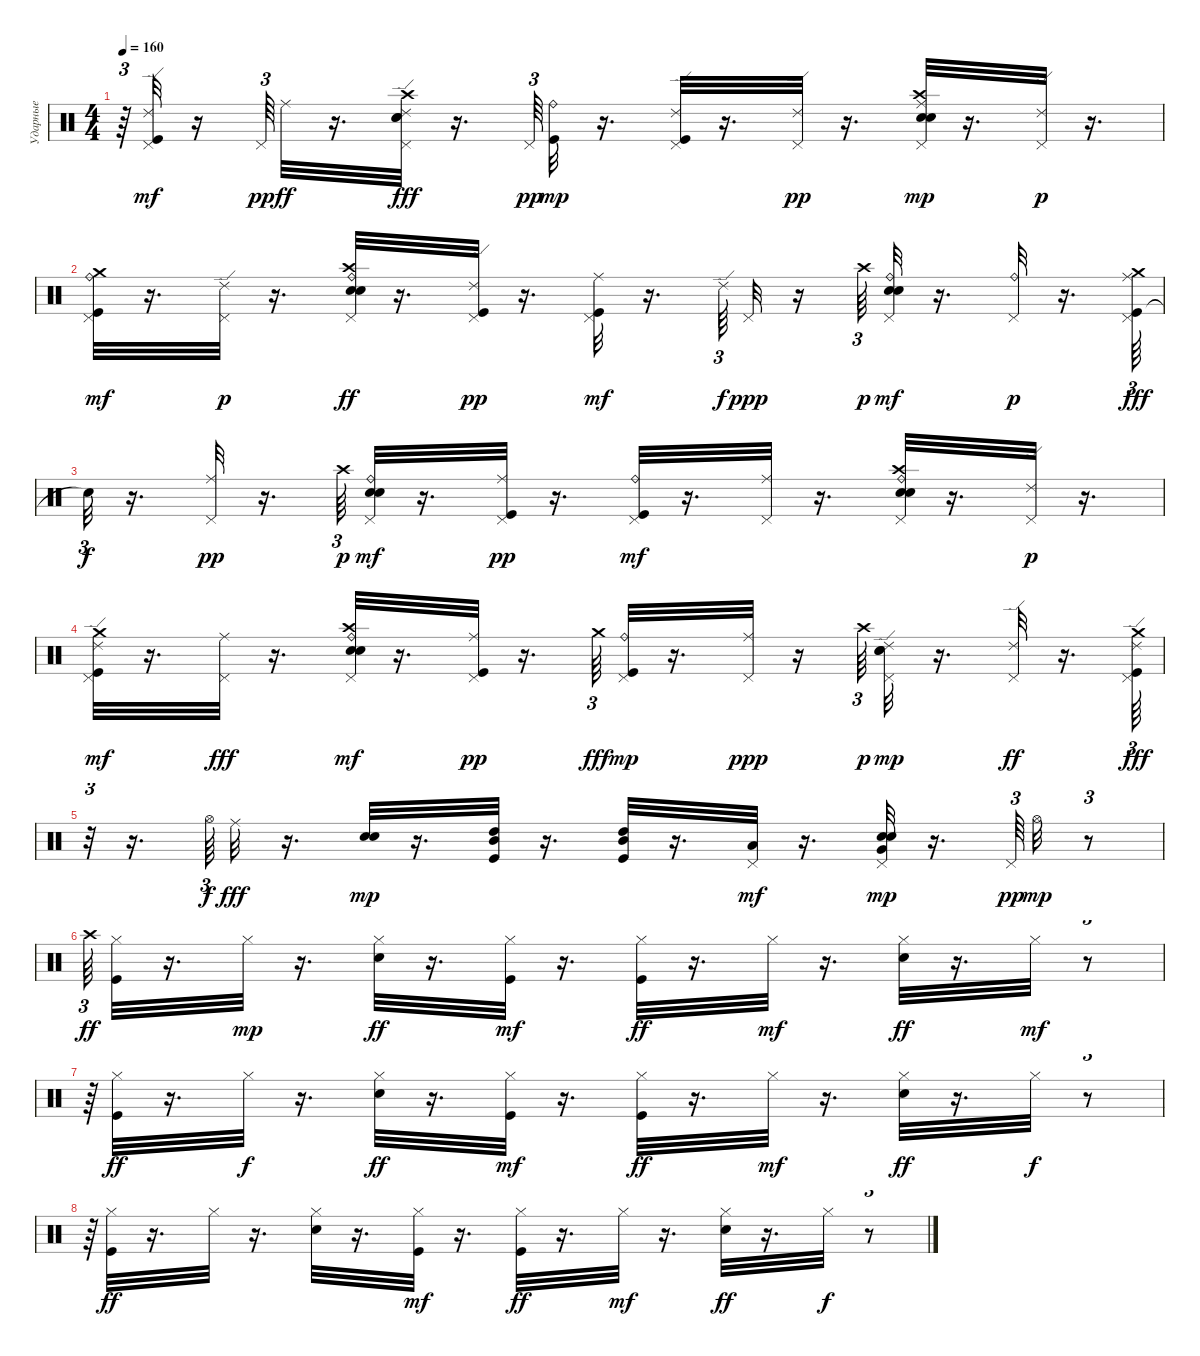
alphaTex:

\track ("Ударные" "Ударные") {instrument percussion}
\staff {score}
\articulation defaults
\ts (4 4)
\tempo 160
\clef neutral
\ks c
r.64{tu (3 2) dy ff} ("Kick (hit)" "Ride (edge) 2" "Pedal Hi-Hat (hit)").32{dy mf} r.16 "Pedal Hi-Hat (hit)".64{tu (3 2) dy pp} "Ride (middle)".32{dy ff} r.16{d} ("Pedal Hi-Hat (hit)" "Electric Snare (hit)" "Crash high (hit)" "Snare (hit) 2" "Ride (edge) 2").32{dy fff} r.16{d} "Pedal Hi-Hat (hit)".64{tu (3 2) dy pp} ("Kick (hit)" "Ride (bell)").32{dy mp} r.16{d} ("Kick (hit)" "Ride (edge) 2" "Pedal Hi-Hat (hit)").32 r.16{d} ("Ride (edge) 2" "Pedal Hi-Hat (hit)").32{dy pp} r.16{d} ("Electric Snare (hit)" "Snare (hit) 2" "Ride (middle)" "Pedal Hi-Hat (hit)" "Crash high (hit)").32{dy mp} r.16{d} ("Ride (edge) 2" "Pedal Hi-Hat (hit)").32{dy p} r.16{d} |
("Crash medium (hit)" "Kick (hit)" "Ride (bell)" "Pedal Hi-Hat (hit)").32{dy mf} r.16{d} ("Ride (edge) 2" "Pedal Hi-Hat (hit)").32{dy p} r.16{d} ("Electric Snare (hit)" "Crash high (hit)" "Snare (hit) 2" "Ride (bell)" "Pedal Hi-Hat (hit)").32{dy ff} r.16{d} ("Kick (hit)" "Ride (edge) 2" "Pedal Hi-Hat (hit)").32{dy pp} r.16{d} ("Kick (hit)" "Ride (middle)" "Pedal Hi-Hat (hit)").32{dy mf} r.16{d} "Ride (edge) 2".64{tu (3 2) dy f} "Pedal Hi-Hat (hit)".32{dy ppp} r.16 "Crash high (hit)".64{tu (3 2) dy p} ("Electric Snare (hit)" "Snare (hit) 2" "Ride (bell)" "Pedal Hi-Hat (hit)").32{dy mf} r.16{d} ("Ride (bell)" "Pedal Hi-Hat (hit)").32{dy p} r.16{d} ("Kick (hit)" "Ride (middle)" "Pedal Hi-Hat (hit)" "Crash medium (hit)").64{tu (3 2) dy fff} |
"Snare (hit)"{t}.32{tu (3 2) dy f} r.16{d} ("Ride (middle)" "Pedal Hi-Hat (hit)").32{dy pp} r.16{d} "Crash high (hit)".64{tu (3 2) dy p} ("Electric Snare (hit)" "Snare (hit) 2" "Ride (bell)" "Pedal Hi-Hat (hit)").32{dy mf} r.16{d} ("Kick (hit)" "Ride (middle)" "Pedal Hi-Hat (hit)").32{dy pp} r.16{d} ("Kick (hit)" "Ride (bell)" "Pedal Hi-Hat (hit)").32{dy mf} r.16{d} ("Pedal Hi-Hat (hit)" "Ride (middle)").32 r.16{d} ("Electric Snare (hit)" "Crash high (hit)" "Snare (hit) 2" "Ride (bell)" "Pedal Hi-Hat (hit)").32 r.16{d} ("Ride (edge) 2" "Pedal Hi-Hat (hit)").32{dy p} r.16{d} |
("Crash medium (hit)" "Kick (hit)" "Ride (edge) 2" "Pedal Hi-Hat (hit)").32{dy mf} r.16{d} ("Pedal Hi-Hat (hit)" "Ride (middle)").32{dy fff} r.16{d} ("Electric Snare (hit)" "Crash high (hit)" "Snare (hit) 2" "Ride (bell)" "Pedal Hi-Hat (hit)").32{dy mf} r.16{d} ("Kick (hit)" "Ride (middle)" "Pedal Hi-Hat (hit)").32{dy pp} r.16{d} "Crash medium (hit)".64{tu (3 2) dy fff} ("Kick (hit)" "Ride (bell)" "Pedal Hi-Hat (hit)").32{dy mp} r.16{d} ("Ride (middle)" "Pedal Hi-Hat (hit)").32{dy ppp} r.16 "Crash high (hit)".64{tu (3 2) dy p} ("Electric Snare (hit)" "Snare (hit) 2" "Ride (edge) 2" "Pedal Hi-Hat (hit)").32{dy mp} r.16{d} ("Pedal Hi-Hat (hit)" "Ride (edge) 2").32{dy ff} r.16{d} ("Kick (hit)" "Crash medium (hit)" "Ride (edge) 2" "Pedal Hi-Hat (hit)").64{tu (3 2) dy fff} |
r.32{tu (3 2)} r.16{d} "Hi-Hat (open)".64{tu (3 2) dy f} "Ride (middle)".32{dy fff} r.16{d} ("Electric Snare (hit)" "Snare (hit) 2").32{dy mp} r.16{d} ("Kick (hit)" "High Tom (hit)" "Mid Tom (hit)").32 r.16{d} ("Kick (hit)" "High Tom (hit)" "Mid Tom (hit)").32 r.16{d} ("Pedal Hi-Hat (hit)" "Low Tom (hit)").32{dy mf} r.16{d} ("Pedal Hi-Hat (hit)" "Electric Snare (hit)" "Very Low Tom (hit)" "Snare (hit) 2").32{dy mp} r.16{d} "Pedal Hi-Hat (hit)".64{tu (3 2) dy pp} "Hi-Hat (open)".32{dy mp} r.8{tu (3 2)} |
"Crash high (hit)".64{tu (3 2) dy ff} ("Kick (hit)" "Hi-Hat (closed)").32 r.16{d} "Hi-Hat (closed)".32{dy mp} r.16{d} ("Hi-Hat (closed)" "Electric Snare (hit)").32{dy ff} r.16{d} ("Kick (hit)" "Hi-Hat (closed)").32{dy mf} r.16{d} ("Kick (hit)" "Hi-Hat (closed)").32{dy ff} r.16{d} "Hi-Hat (closed)".32{dy mf} r.16{d} ("Hi-Hat (closed)" "Electric Snare (hit)").32{dy ff} r.16{d} "Hi-Hat (closed)".32{dy mf} r.8{tu (3 2)} |
r.64{tu (3 2)} ("Kick (hit)" "Hi-Hat (closed)").32{dy ff} r.16{d} "Hi-Hat (closed)".32{dy f} r.16{d} ("Hi-Hat (closed)" "Electric Snare (hit)").32{dy ff} r.16{d} ("Kick (hit)" "Hi-Hat (closed)").32{dy mf} r.16{d} ("Kick (hit)" "Hi-Hat (closed)").32{dy ff} r.16{d} "Hi-Hat (closed)".32{dy mf} r.16{d} ("Hi-Hat (closed)" "Electric Snare (hit)").32{dy ff} r.16{d} "Hi-Hat (closed)".32{dy f} r.8{tu (3 2)} |
r.64{tu (3 2)} ("Kick (hit)" "Hi-Hat (closed)").32{dy ff} r.16{d} "Hi-Hat (closed)".32 r.16{d} ("Hi-Hat (closed)" "Electric Snare (hit)").32 r.16{d} ("Kick (hit)" "Hi-Hat (closed)").32{dy mf} r.16{d} ("Kick (hit)" "Hi-Hat (closed)").32{dy ff} r.16{d} "Hi-Hat (closed)".32{dy mf} r.16{d} ("Hi-Hat (closed)" "Electric Snare (hit)").32{dy ff} r.16{d} "Hi-Hat (closed)".32{dy f} r.8{tu (3 2)}
